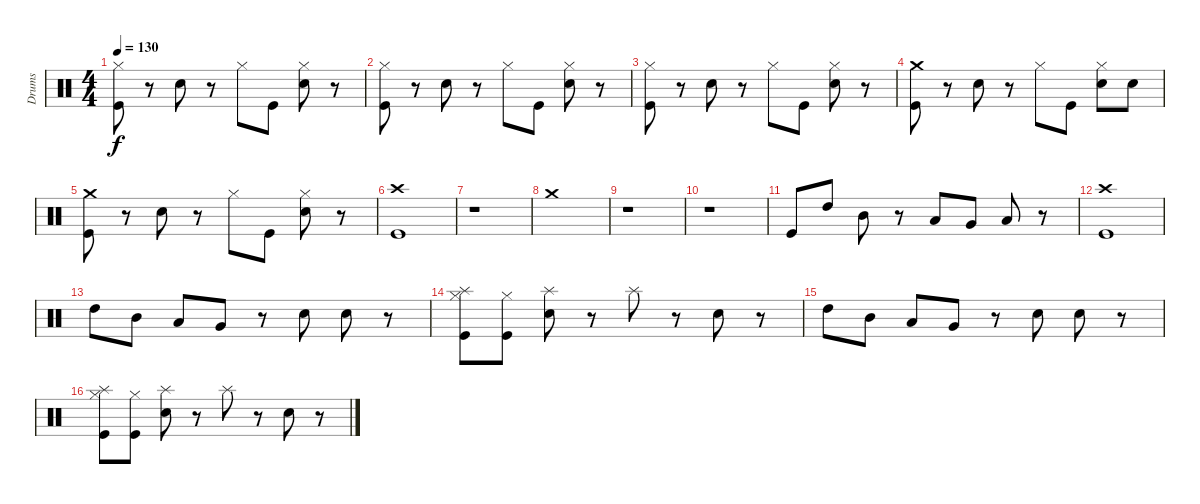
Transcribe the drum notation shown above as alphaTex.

\track ("Drums" "Drums") {instrument percussion}
\staff {score}
\articulation defaults
\ts (4 4)
\tempo 130
\clef neutral
\ks c
("Hi-Hat (closed)" "Kick (hit)").8{dy f} r.8 "Snare (hit) 2".8 r.8 "Hi-Hat (closed)".8 "Kick (hit)".8 ("Hi-Hat (closed)" "Snare (hit) 2").8 r.8 |
("Hi-Hat (closed)" "Kick (hit)").8 r.8 "Snare (hit) 2".8 r.8 "Hi-Hat (closed)".8 "Kick (hit)".8 ("Hi-Hat (closed)" "Snare (hit) 2").8 r.8 |
("Hi-Hat (closed)" "Kick (hit)").8 r.8 "Snare (hit) 2".8 r.8 "Hi-Hat (closed)".8 "Kick (hit)".8 ("Hi-Hat (closed)" "Snare (hit) 2").8 r.8 |
("Crash medium (hit)" "Kick (hit)").8 r.8 "Snare (hit) 2".8 r.8 "Hi-Hat (closed)".8 "Kick (hit)".8 ("Hi-Hat (closed)" "Snare (hit) 2").8 "Snare (hit) 2".8 |
("Crash medium (hit)" "Kick (hit)").8 r.8 "Snare (hit) 2".8 r.8 "Hi-Hat (closed)".8 "Kick (hit)".8 ("Hi-Hat (closed)" "Snare (hit) 2").8 r.8 |
("Crash high (hit)" "Kick (hit)").1 |
r.1 |
"Crash medium (hit)".1 |
r.1 |
r.1 |
"Kick (hit)".8 "High Tom (hit)".8 "Mid Tom (hit)".8 r.8 "Low Tom (hit)".8 "Very Low Tom (hit)".8 "Low Tom (hit)".8 r.8 |
("Crash high (hit)" "Kick (hit)").1 |
"High Tom (hit)".8 "Mid Tom (hit)".8 "Low Tom (hit)".8 "Very Low Tom (hit)".8 r.8 "Snare (hit) 2".8 "Snare (hit) 2".8 r.8 |
("Splash (hit)" "Hi-Hat (closed)" "Kick (hit)").8 ("Hi-Hat (closed)" "Kick (hit)").8 ("Splash (hit)" "Snare (hit) 2").8 r.8 "Splash (hit)".8 r.8 "Snare (hit) 2".8 r.8 |
"High Tom (hit)".8 "Mid Tom (hit)".8 "Low Tom (hit)".8 "Very Low Tom (hit)".8 r.8 "Snare (hit) 2".8 "Snare (hit) 2".8 r.8 |
("Splash (hit)" "Hi-Hat (closed)" "Kick (hit)").8 ("Hi-Hat (closed)" "Kick (hit)").8 ("Splash (hit)" "Snare (hit) 2").8 r.8 "Splash (hit)".8 r.8 "Snare (hit) 2".8 r.8
